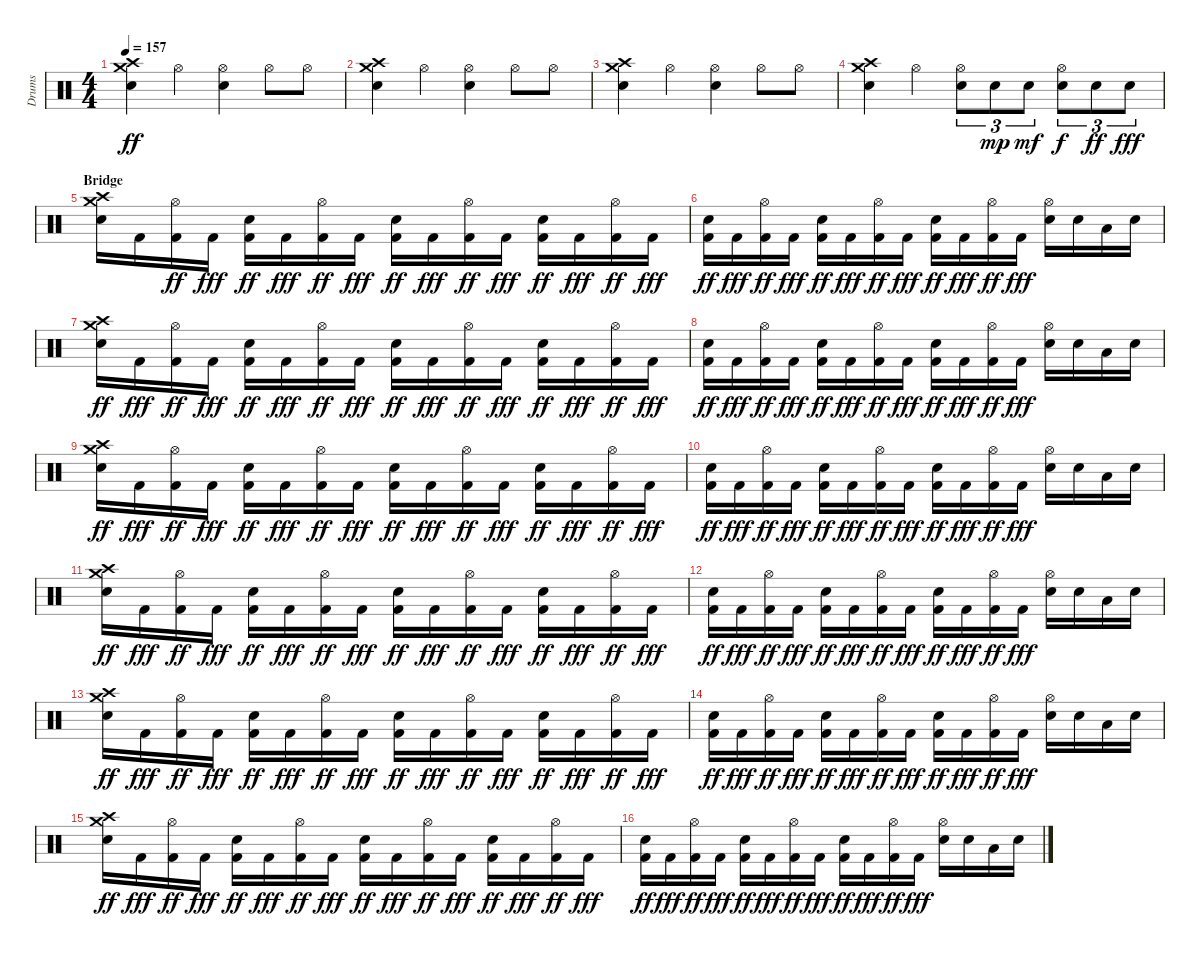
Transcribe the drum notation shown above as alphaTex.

\track ("Drums" "Drums") {instrument percussion}
\staff {score}
\articulation defaults
\ts (4 4)
\tempo 157
\clef neutral
\ks c
("Crash high (hit)" "Crash medium (hit)" "Electric Snare (hit)").4{dy ff} "Hi-Hat (open)".4 ("Electric Snare (hit)" "Hi-Hat (open)").4 "Hi-Hat (open)".8 "Hi-Hat (open)".8 |
("Crash high (hit)" "Crash medium (hit)" "Electric Snare (hit)").4 "Hi-Hat (open)".4 ("Electric Snare (hit)" "Hi-Hat (open)").4 "Hi-Hat (open)".8 "Hi-Hat (open)".8 |
("Crash high (hit)" "Crash medium (hit)" "Electric Snare (hit)").4 "Hi-Hat (open)".4 ("Electric Snare (hit)" "Hi-Hat (open)").4 "Hi-Hat (open)".8 "Hi-Hat (open)".8 |
("Crash high (hit)" "Crash medium (hit)" "Electric Snare (hit)").4 "Hi-Hat (open)".4 ("Electric Snare (hit)" "Hi-Hat (open)").8{tu (3 2)} "Electric Snare (hit)".8{tu (3 2) dy mp} "Electric Snare (hit)".8{tu (3 2) dy mf} ("Electric Snare (hit)" "Hi-Hat (open)").8{tu (3 2) dy f} "Electric Snare (hit)".8{tu (3 2) dy ff} "Electric Snare (hit)".8{tu (3 2) dy fff} |
\section ("" "Bridge")
("Electric Snare (hit)" "Crash medium (hit)" "Crash high (hit)").16 "Kick (hit) 2".16 ("Kick (hit) 2" "Hi-Hat (open)").16{dy ff} "Kick (hit) 2".16{dy fff} ("Kick (hit) 2" "Electric Snare (hit)").16{dy ff} "Kick (hit) 2".16{dy fff} ("Kick (hit) 2" "Hi-Hat (open)").16{dy ff} "Kick (hit) 2".16{dy fff} ("Kick (hit) 2" "Electric Snare (hit)").16{dy ff} "Kick (hit) 2".16{dy fff} ("Kick (hit) 2" "Hi-Hat (open)").16{dy ff} "Kick (hit) 2".16{dy fff} ("Kick (hit) 2" "Electric Snare (hit)").16{dy ff} "Kick (hit) 2".16{dy fff} ("Kick (hit) 2" "Hi-Hat (open)").16{dy ff} "Kick (hit) 2".16{dy fff} |
("Kick (hit) 2" "Electric Snare (hit)").16{dy ff} "Kick (hit) 2".16{dy fff} ("Kick (hit) 2" "Hi-Hat (open)").16{dy ff} "Kick (hit) 2".16{dy fff} ("Kick (hit) 2" "Electric Snare (hit)").16{dy ff} "Kick (hit) 2".16{dy fff} ("Kick (hit) 2" "Hi-Hat (open)").16{dy ff} "Kick (hit) 2".16{dy fff} ("Kick (hit) 2" "Electric Snare (hit)").16{dy ff} "Kick (hit) 2".16{dy fff} ("Kick (hit) 2" "Hi-Hat (open)").16{dy ff} "Kick (hit) 2".16{dy fff} ("Electric Snare (hit)" "Hi-Hat (open)").16 "Electric Snare (hit)".16 "Low Tom (hit)".16 "Snare (hit) 2".16 |
("Crash high (hit)" "Crash medium (hit)" "Electric Snare (hit)").16{dy ff} "Kick (hit) 2".16{dy fff} ("Kick (hit) 2" "Hi-Hat (open)").16{dy ff} "Kick (hit) 2".16{dy fff} ("Kick (hit) 2" "Electric Snare (hit)").16{dy ff} "Kick (hit) 2".16{dy fff} ("Kick (hit) 2" "Hi-Hat (open)").16{dy ff} "Kick (hit) 2".16{dy fff} ("Kick (hit) 2" "Electric Snare (hit)").16{dy ff} "Kick (hit) 2".16{dy fff} ("Kick (hit) 2" "Hi-Hat (open)").16{dy ff} "Kick (hit) 2".16{dy fff} ("Kick (hit) 2" "Electric Snare (hit)").16{dy ff} "Kick (hit) 2".16{dy fff} ("Kick (hit) 2" "Hi-Hat (open)").16{dy ff} "Kick (hit) 2".16{dy fff} |
("Kick (hit) 2" "Electric Snare (hit)").16{dy ff} "Kick (hit) 2".16{dy fff} ("Kick (hit) 2" "Hi-Hat (open)").16{dy ff} "Kick (hit) 2".16{dy fff} ("Kick (hit) 2" "Electric Snare (hit)").16{dy ff} "Kick (hit) 2".16{dy fff} ("Kick (hit) 2" "Hi-Hat (open)").16{dy ff} "Kick (hit) 2".16{dy fff} ("Kick (hit) 2" "Electric Snare (hit)").16{dy ff} "Kick (hit) 2".16{dy fff} ("Kick (hit) 2" "Hi-Hat (open)").16{dy ff} "Kick (hit) 2".16{dy fff} ("Electric Snare (hit)" "Hi-Hat (open)").16 "Electric Snare (hit)".16 "Low Tom (hit)".16 "Snare (hit) 2".16 |
("Crash high (hit)" "Crash medium (hit)" "Electric Snare (hit)").16{dy ff} "Kick (hit) 2".16{dy fff} ("Kick (hit) 2" "Hi-Hat (open)").16{dy ff} "Kick (hit) 2".16{dy fff} ("Kick (hit) 2" "Electric Snare (hit)").16{dy ff} "Kick (hit) 2".16{dy fff} ("Kick (hit) 2" "Hi-Hat (open)").16{dy ff} "Kick (hit) 2".16{dy fff} ("Kick (hit) 2" "Electric Snare (hit)").16{dy ff} "Kick (hit) 2".16{dy fff} ("Kick (hit) 2" "Hi-Hat (open)").16{dy ff} "Kick (hit) 2".16{dy fff} ("Kick (hit) 2" "Electric Snare (hit)").16{dy ff} "Kick (hit) 2".16{dy fff} ("Kick (hit) 2" "Hi-Hat (open)").16{dy ff} "Kick (hit) 2".16{dy fff} |
("Kick (hit) 2" "Electric Snare (hit)").16{dy ff} "Kick (hit) 2".16{dy fff} ("Kick (hit) 2" "Hi-Hat (open)").16{dy ff} "Kick (hit) 2".16{dy fff} ("Kick (hit) 2" "Electric Snare (hit)").16{dy ff} "Kick (hit) 2".16{dy fff} ("Kick (hit) 2" "Hi-Hat (open)").16{dy ff} "Kick (hit) 2".16{dy fff} ("Kick (hit) 2" "Electric Snare (hit)").16{dy ff} "Kick (hit) 2".16{dy fff} ("Kick (hit) 2" "Hi-Hat (open)").16{dy ff} "Kick (hit) 2".16{dy fff} ("Electric Snare (hit)" "Hi-Hat (open)").16 "Electric Snare (hit)".16 "Low Tom (hit)".16 "Snare (hit) 2".16 |
("Crash high (hit)" "Crash medium (hit)" "Electric Snare (hit)").16{dy ff} "Kick (hit) 2".16{dy fff} ("Kick (hit) 2" "Hi-Hat (open)").16{dy ff} "Kick (hit) 2".16{dy fff} ("Kick (hit) 2" "Electric Snare (hit)").16{dy ff} "Kick (hit) 2".16{dy fff} ("Kick (hit) 2" "Hi-Hat (open)").16{dy ff} "Kick (hit) 2".16{dy fff} ("Kick (hit) 2" "Electric Snare (hit)").16{dy ff} "Kick (hit) 2".16{dy fff} ("Kick (hit) 2" "Hi-Hat (open)").16{dy ff} "Kick (hit) 2".16{dy fff} ("Kick (hit) 2" "Electric Snare (hit)").16{dy ff} "Kick (hit) 2".16{dy fff} ("Kick (hit) 2" "Hi-Hat (open)").16{dy ff} "Kick (hit) 2".16{dy fff} |
("Kick (hit) 2" "Electric Snare (hit)").16{dy ff} "Kick (hit) 2".16{dy fff} ("Kick (hit) 2" "Hi-Hat (open)").16{dy ff} "Kick (hit) 2".16{dy fff} ("Kick (hit) 2" "Electric Snare (hit)").16{dy ff} "Kick (hit) 2".16{dy fff} ("Kick (hit) 2" "Hi-Hat (open)").16{dy ff} "Kick (hit) 2".16{dy fff} ("Kick (hit) 2" "Electric Snare (hit)").16{dy ff} "Kick (hit) 2".16{dy fff} ("Kick (hit) 2" "Hi-Hat (open)").16{dy ff} "Kick (hit) 2".16{dy fff} ("Electric Snare (hit)" "Hi-Hat (open)").16 "Electric Snare (hit)".16 "Low Tom (hit)".16 "Snare (hit) 2".16 |
("Crash high (hit)" "Crash medium (hit)" "Electric Snare (hit)").16{dy ff} "Kick (hit) 2".16{dy fff} ("Kick (hit) 2" "Hi-Hat (open)").16{dy ff} "Kick (hit) 2".16{dy fff} ("Kick (hit) 2" "Electric Snare (hit)").16{dy ff} "Kick (hit) 2".16{dy fff} ("Kick (hit) 2" "Hi-Hat (open)").16{dy ff} "Kick (hit) 2".16{dy fff} ("Kick (hit) 2" "Electric Snare (hit)").16{dy ff} "Kick (hit) 2".16{dy fff} ("Kick (hit) 2" "Hi-Hat (open)").16{dy ff} "Kick (hit) 2".16{dy fff} ("Kick (hit) 2" "Electric Snare (hit)").16{dy ff} "Kick (hit) 2".16{dy fff} ("Kick (hit) 2" "Hi-Hat (open)").16{dy ff} "Kick (hit) 2".16{dy fff} |
("Kick (hit) 2" "Electric Snare (hit)").16{dy ff} "Kick (hit) 2".16{dy fff} ("Kick (hit) 2" "Hi-Hat (open)").16{dy ff} "Kick (hit) 2".16{dy fff} ("Kick (hit) 2" "Electric Snare (hit)").16{dy ff} "Kick (hit) 2".16{dy fff} ("Kick (hit) 2" "Hi-Hat (open)").16{dy ff} "Kick (hit) 2".16{dy fff} ("Kick (hit) 2" "Electric Snare (hit)").16{dy ff} "Kick (hit) 2".16{dy fff} ("Kick (hit) 2" "Hi-Hat (open)").16{dy ff} "Kick (hit) 2".16{dy fff} ("Electric Snare (hit)" "Hi-Hat (open)").16 "Electric Snare (hit)".16 "Low Tom (hit)".16 "Snare (hit) 2".16 |
("Crash high (hit)" "Crash medium (hit)" "Electric Snare (hit)").16{dy ff} "Kick (hit) 2".16{dy fff} ("Kick (hit) 2" "Hi-Hat (open)").16{dy ff} "Kick (hit) 2".16{dy fff} ("Kick (hit) 2" "Electric Snare (hit)").16{dy ff} "Kick (hit) 2".16{dy fff} ("Kick (hit) 2" "Hi-Hat (open)").16{dy ff} "Kick (hit) 2".16{dy fff} ("Kick (hit) 2" "Electric Snare (hit)").16{dy ff} "Kick (hit) 2".16{dy fff} ("Kick (hit) 2" "Hi-Hat (open)").16{dy ff} "Kick (hit) 2".16{dy fff} ("Kick (hit) 2" "Electric Snare (hit)").16{dy ff} "Kick (hit) 2".16{dy fff} ("Kick (hit) 2" "Hi-Hat (open)").16{dy ff} "Kick (hit) 2".16{dy fff} |
("Kick (hit) 2" "Electric Snare (hit)").16{dy ff} "Kick (hit) 2".16{dy fff} ("Kick (hit) 2" "Hi-Hat (open)").16{dy ff} "Kick (hit) 2".16{dy fff} ("Kick (hit) 2" "Electric Snare (hit)").16{dy ff} "Kick (hit) 2".16{dy fff} ("Kick (hit) 2" "Hi-Hat (open)").16{dy ff} "Kick (hit) 2".16{dy fff} ("Kick (hit) 2" "Electric Snare (hit)").16{dy ff} "Kick (hit) 2".16{dy fff} ("Kick (hit) 2" "Hi-Hat (open)").16{dy ff} "Kick (hit) 2".16{dy fff} ("Electric Snare (hit)" "Hi-Hat (open)").16 "Electric Snare (hit)".16 "Low Tom (hit)".16 "Snare (hit) 2".16
